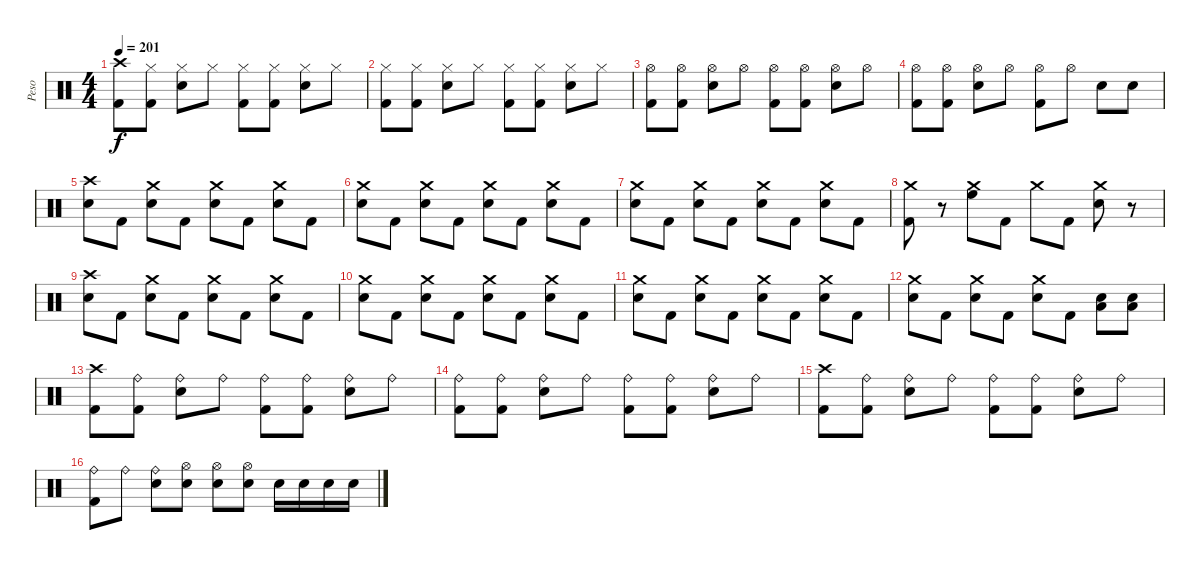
\track ("Peso" "Peso") {instrument percussion}
\staff {score}
\articulation defaults
\ts (4 4)
\tempo 201
\clef neutral
\ks c
("Crash high (hit)" "Kick (hit) 2").8{dy f} ("Hi-Hat (closed)" "Kick (hit) 2").8 ("Hi-Hat (closed)" "Snare (hit) 2").8 "Hi-Hat (closed)".8 ("Hi-Hat (closed)" "Kick (hit) 2").8 ("Hi-Hat (closed)" "Kick (hit) 2").8 ("Hi-Hat (closed)" "Snare (hit) 2").8 "Hi-Hat (closed)".8 |
("Hi-Hat (closed)" "Kick (hit) 2").8 ("Hi-Hat (closed)" "Kick (hit) 2").8 ("Hi-Hat (closed)" "Snare (hit) 2").8 "Hi-Hat (closed)".8 ("Hi-Hat (closed)" "Kick (hit) 2").8 ("Hi-Hat (closed)" "Kick (hit) 2").8 ("Hi-Hat (closed)" "Snare (hit) 2").8 "Hi-Hat (closed)".8 |
("Hi-Hat (open)" "Kick (hit) 2").8{volume 12} ("Hi-Hat (open)" "Kick (hit) 2").8 ("Hi-Hat (open)" "Snare (hit) 2").8 "Hi-Hat (open)".8{volume 13} ("Hi-Hat (open)" "Kick (hit) 2").8 ("Hi-Hat (open)" "Kick (hit) 2").8 ("Hi-Hat (open)" "Snare (hit) 2").8 "Hi-Hat (open)".8{volume 14} |
("Hi-Hat (open)" "Kick (hit) 2").8 ("Hi-Hat (open)" "Kick (hit) 2").8 ("Hi-Hat (open)" "Snare (hit) 2").8{volume 15} "Hi-Hat (open)".8 ("Hi-Hat (open)" "Kick (hit) 2").8 "Hi-Hat (open)".8 "Snare (hit) 2".8 "Snare (hit) 2".8 |
("Crash high (hit)" "Snare (hit) 2").8 "Kick (hit) 2".8 ("Crash medium (hit)" "Snare (hit) 2").8 "Kick (hit) 2".8 ("Crash medium (hit)" "Snare (hit) 2").8 "Kick (hit) 2".8 ("Crash medium (hit)" "Snare (hit) 2").8 "Kick (hit) 2".8 |
("Crash medium (hit)" "Snare (hit) 2").8 "Kick (hit) 2".8 ("Crash medium (hit)" "Snare (hit) 2").8 "Kick (hit) 2".8 ("Crash medium (hit)" "Snare (hit) 2").8 "Kick (hit) 2".8 ("Crash medium (hit)" "Snare (hit) 2").8 "Kick (hit) 2".8 |
("Crash medium (hit)" "Snare (hit) 2").8 "Kick (hit) 2".8 ("Crash medium (hit)" "Snare (hit) 2").8 "Kick (hit) 2".8 ("Crash medium (hit)" "Snare (hit) 2").8 "Kick (hit) 2".8 ("Crash medium (hit)" "Snare (hit) 2").8 "Kick (hit) 2".8 |
("Crash medium (hit)" "Kick (hit) 2").8 r.8 ("Crash medium (hit)" "High Floor Tom (hit)").8 "Kick (hit) 2".8 "Crash medium (hit)".8 "Kick (hit) 2".8 ("Crash medium (hit)" "Snare (hit) 2").8 r.8 |
("Crash high (hit)" "Snare (hit) 2").8 "Kick (hit) 2".8 ("Crash medium (hit)" "Snare (hit) 2").8 "Kick (hit) 2".8 ("Crash medium (hit)" "Snare (hit) 2").8 "Kick (hit) 2".8 ("Crash medium (hit)" "Snare (hit) 2").8 "Kick (hit) 2".8 |
("Crash medium (hit)" "Snare (hit) 2").8 "Kick (hit) 2".8 ("Crash medium (hit)" "Snare (hit) 2").8 "Kick (hit) 2".8 ("Crash medium (hit)" "Snare (hit) 2").8 "Kick (hit) 2".8 ("Crash medium (hit)" "Snare (hit) 2").8 "Kick (hit) 2".8 |
("Crash medium (hit)" "Snare (hit) 2").8 "Kick (hit) 2".8 ("Crash medium (hit)" "Snare (hit) 2").8 "Kick (hit) 2".8 ("Crash medium (hit)" "Snare (hit) 2").8 "Kick (hit) 2".8 ("Crash medium (hit)" "Snare (hit) 2").8 "Kick (hit) 2".8 |
("Crash medium (hit)" "Snare (hit) 2").8 "Kick (hit) 2".8 ("Crash medium (hit)" "Snare (hit) 2").8 "Kick (hit) 2".8 ("Crash medium (hit)" "Snare (hit) 2").8 "Kick (hit) 2".8 ("Snare (hit) 2" "Low Floor Tom (hit)").8 ("Snare (hit) 2" "Low Floor Tom (hit)").8 |
("Crash high (hit)" "Kick (hit) 2").8 ("Ride (bell)" "Kick (hit) 2").8 ("Ride (bell)" "Snare (hit) 2").8 "Ride (bell)".8 ("Ride (bell)" "Kick (hit) 2").8 ("Ride (bell)" "Kick (hit) 2").8 ("Ride (bell)" "Snare (hit) 2").8 "Ride (bell)".8 |
("Ride (bell)" "Kick (hit) 2").8 ("Ride (bell)" "Kick (hit) 2").8 ("Ride (bell)" "Snare (hit) 2").8 "Ride (bell)".8 ("Ride (bell)" "Kick (hit) 2").8 ("Ride (bell)" "Kick (hit) 2").8 ("Ride (bell)" "Snare (hit) 2").8 "Ride (bell)".8 |
("Crash high (hit)" "Kick (hit) 2").8 ("Ride (bell)" "Kick (hit) 2").8 ("Ride (bell)" "Snare (hit) 2").8 "Ride (bell)".8 ("Ride (bell)" "Kick (hit) 2").8 ("Ride (bell)" "Kick (hit) 2").8 ("Ride (bell)" "Snare (hit) 2").8 "Ride (bell)".8 |
("Ride (bell)" "Kick (hit) 2").8 "Ride (bell)".8 ("Ride (bell)" "Snare (hit) 2").8 ("Hi-Hat (open)" "Snare (hit) 2").8 ("Hi-Hat (open)" "Snare (hit) 2").8 ("Hi-Hat (open)" "Snare (hit) 2").8 "Snare (hit) 2".16 "Snare (hit) 2".16 "Snare (hit) 2".16 "Snare (hit) 2".16
